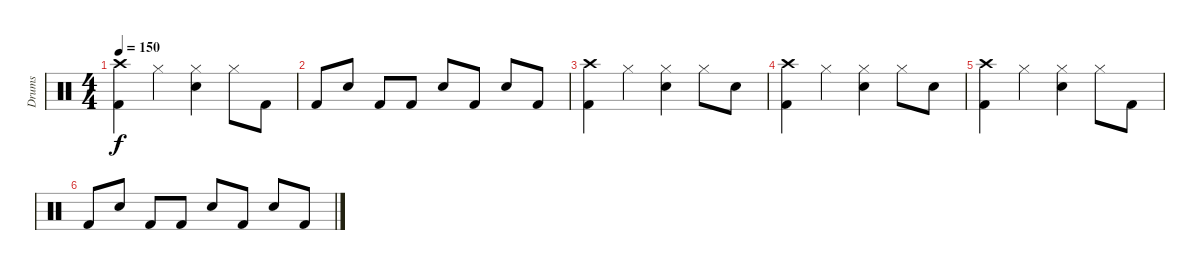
\track ("Drums" "Drums") {instrument percussion}
\staff {score}
\articulation defaults
\ts (4 4)
\tempo 150
\clef neutral
\ks c
("Crash high (hit)" "Kick (hit) 2").4{dy f} "Hi-Hat (closed)".4 ("Hi-Hat (closed)" "Electric Snare (hit)").4 "Hi-Hat (closed)".8 "Kick (hit) 2".8 |
"Kick (hit) 2".8 "Electric Snare (hit)".8 "Kick (hit) 2".8 "Kick (hit) 2".8 "Electric Snare (hit)".8 "Kick (hit) 2".8 "Electric Snare (hit)".8 "Kick (hit) 2".8 |
("Crash high (hit)" "Kick (hit) 2").4 "Hi-Hat (closed)".4 ("Hi-Hat (closed)" "Electric Snare (hit)").4 "Hi-Hat (closed)".8 "Electric Snare (hit)".8 |
("Crash high (hit)" "Kick (hit) 2").4 "Hi-Hat (closed)".4 ("Electric Snare (hit)" "Hi-Hat (closed)").4 "Hi-Hat (closed)".8 "Electric Snare (hit)".8 |
("Crash high (hit)" "Kick (hit) 2").4 "Hi-Hat (closed)".4 ("Hi-Hat (closed)" "Electric Snare (hit)").4 "Hi-Hat (closed)".8 "Kick (hit) 2".8 |
"Kick (hit) 2".8 "Electric Snare (hit)".8 "Kick (hit) 2".8 "Kick (hit) 2".8 "Electric Snare (hit)".8 "Kick (hit) 2".8 "Electric Snare (hit)".8 "Kick (hit) 2".8
